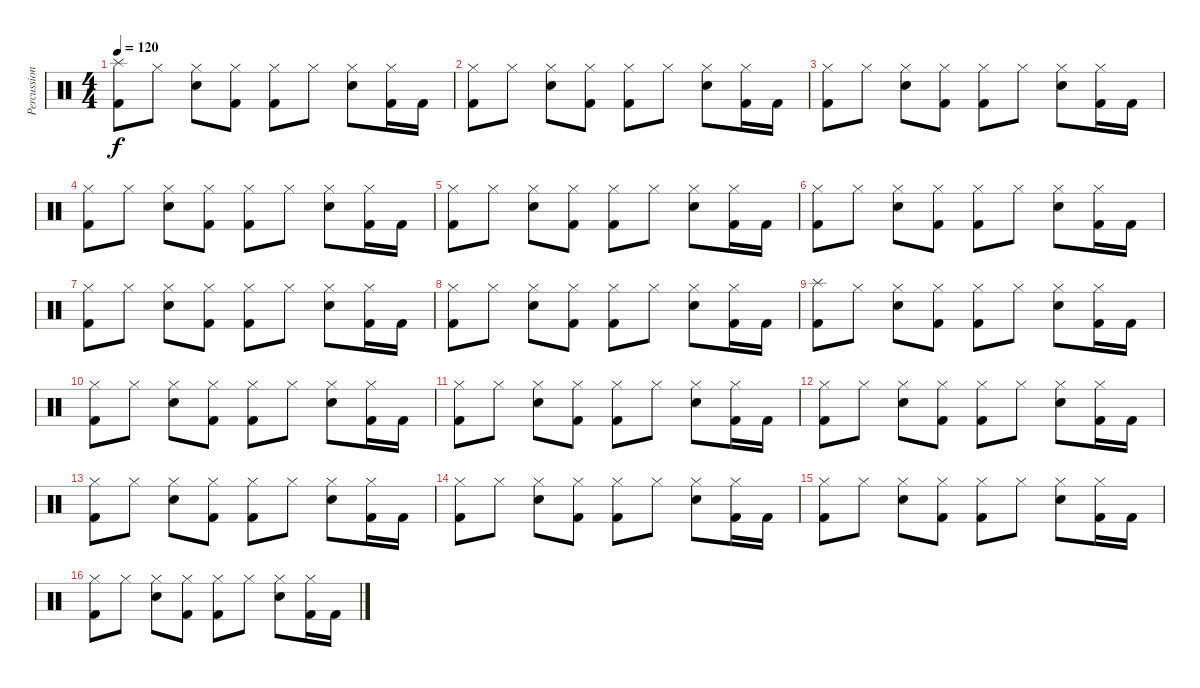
\track ("Percussion" "Percussion") {instrument percussion}
\staff {score}
\articulation defaults
\ts (4 4)
\tempo 120
\clef neutral
\ks c
("Splash (hit)" "Kick (hit) 2").8{dy f} "Hi-Hat (closed)".8 ("Hi-Hat (closed)" "Electric Snare (hit)").8 ("Hi-Hat (closed)" "Kick (hit) 2").8 ("Hi-Hat (closed)" "Kick (hit) 2").8 "Hi-Hat (closed)".8 ("Hi-Hat (closed)" "Electric Snare (hit)").8 ("Hi-Hat (closed)" "Kick (hit) 2").16 "Kick (hit) 2".16 |
("Hi-Hat (closed)" "Kick (hit) 2").8 "Hi-Hat (closed)".8 ("Hi-Hat (closed)" "Electric Snare (hit)").8 ("Hi-Hat (closed)" "Kick (hit) 2").8 ("Hi-Hat (closed)" "Kick (hit) 2").8 "Hi-Hat (closed)".8 ("Hi-Hat (closed)" "Electric Snare (hit)").8 ("Hi-Hat (closed)" "Kick (hit) 2").16 "Kick (hit) 2".16 |
("Hi-Hat (closed)" "Kick (hit) 2").8 "Hi-Hat (closed)".8 ("Hi-Hat (closed)" "Electric Snare (hit)").8 ("Hi-Hat (closed)" "Kick (hit) 2").8 ("Hi-Hat (closed)" "Kick (hit) 2").8 "Hi-Hat (closed)".8 ("Hi-Hat (closed)" "Electric Snare (hit)").8 ("Hi-Hat (closed)" "Kick (hit) 2").16 "Kick (hit) 2".16 |
("Hi-Hat (closed)" "Kick (hit) 2").8 "Hi-Hat (closed)".8 ("Hi-Hat (closed)" "Electric Snare (hit)").8 ("Hi-Hat (closed)" "Kick (hit) 2").8 ("Hi-Hat (closed)" "Kick (hit) 2").8 "Hi-Hat (closed)".8 ("Hi-Hat (closed)" "Electric Snare (hit)").8 ("Hi-Hat (closed)" "Kick (hit) 2").16 "Kick (hit) 2".16 |
("Hi-Hat (closed)" "Kick (hit) 2").8 "Hi-Hat (closed)".8 ("Hi-Hat (closed)" "Electric Snare (hit)").8 ("Hi-Hat (closed)" "Kick (hit) 2").8 ("Hi-Hat (closed)" "Kick (hit) 2").8 "Hi-Hat (closed)".8 ("Hi-Hat (closed)" "Electric Snare (hit)").8 ("Hi-Hat (closed)" "Kick (hit) 2").16 "Kick (hit) 2".16 |
("Hi-Hat (closed)" "Kick (hit) 2").8 "Hi-Hat (closed)".8 ("Hi-Hat (closed)" "Electric Snare (hit)").8 ("Hi-Hat (closed)" "Kick (hit) 2").8 ("Hi-Hat (closed)" "Kick (hit) 2").8 "Hi-Hat (closed)".8 ("Hi-Hat (closed)" "Electric Snare (hit)").8 ("Hi-Hat (closed)" "Kick (hit) 2").16 "Kick (hit) 2".16 |
("Hi-Hat (closed)" "Kick (hit) 2").8 "Hi-Hat (closed)".8 ("Hi-Hat (closed)" "Electric Snare (hit)").8 ("Hi-Hat (closed)" "Kick (hit) 2").8 ("Hi-Hat (closed)" "Kick (hit) 2").8 "Hi-Hat (closed)".8 ("Hi-Hat (closed)" "Electric Snare (hit)").8 ("Hi-Hat (closed)" "Kick (hit) 2").16 "Kick (hit) 2".16 |
("Hi-Hat (closed)" "Kick (hit) 2").8 "Hi-Hat (closed)".8 ("Hi-Hat (closed)" "Electric Snare (hit)").8 ("Hi-Hat (closed)" "Kick (hit) 2").8 ("Hi-Hat (closed)" "Kick (hit) 2").8 "Hi-Hat (closed)".8 ("Hi-Hat (closed)" "Electric Snare (hit)").8 ("Hi-Hat (closed)" "Kick (hit) 2").16 "Kick (hit) 2".16 |
("Splash (hit)" "Kick (hit) 2").8 "Hi-Hat (closed)".8 ("Hi-Hat (closed)" "Electric Snare (hit)").8 ("Hi-Hat (closed)" "Kick (hit) 2").8 ("Hi-Hat (closed)" "Kick (hit) 2").8 "Hi-Hat (closed)".8 ("Hi-Hat (closed)" "Electric Snare (hit)").8 ("Hi-Hat (closed)" "Kick (hit) 2").16 "Kick (hit) 2".16 |
("Hi-Hat (closed)" "Kick (hit) 2").8 "Hi-Hat (closed)".8 ("Hi-Hat (closed)" "Electric Snare (hit)").8 ("Hi-Hat (closed)" "Kick (hit) 2").8 ("Hi-Hat (closed)" "Kick (hit) 2").8 "Hi-Hat (closed)".8 ("Hi-Hat (closed)" "Electric Snare (hit)").8 ("Hi-Hat (closed)" "Kick (hit) 2").16 "Kick (hit) 2".16 |
("Hi-Hat (closed)" "Kick (hit) 2").8 "Hi-Hat (closed)".8 ("Hi-Hat (closed)" "Electric Snare (hit)").8 ("Hi-Hat (closed)" "Kick (hit) 2").8 ("Hi-Hat (closed)" "Kick (hit) 2").8 "Hi-Hat (closed)".8 ("Hi-Hat (closed)" "Electric Snare (hit)").8 ("Hi-Hat (closed)" "Kick (hit) 2").16 "Kick (hit) 2".16 |
("Hi-Hat (closed)" "Kick (hit) 2").8 "Hi-Hat (closed)".8 ("Hi-Hat (closed)" "Electric Snare (hit)").8 ("Hi-Hat (closed)" "Kick (hit) 2").8 ("Hi-Hat (closed)" "Kick (hit) 2").8 "Hi-Hat (closed)".8 ("Hi-Hat (closed)" "Electric Snare (hit)").8 ("Hi-Hat (closed)" "Kick (hit) 2").16 "Kick (hit) 2".16 |
("Hi-Hat (closed)" "Kick (hit) 2").8 "Hi-Hat (closed)".8 ("Hi-Hat (closed)" "Electric Snare (hit)").8 ("Hi-Hat (closed)" "Kick (hit) 2").8 ("Hi-Hat (closed)" "Kick (hit) 2").8 "Hi-Hat (closed)".8 ("Hi-Hat (closed)" "Electric Snare (hit)").8 ("Hi-Hat (closed)" "Kick (hit) 2").16 "Kick (hit) 2".16 |
("Hi-Hat (closed)" "Kick (hit) 2").8 "Hi-Hat (closed)".8 ("Hi-Hat (closed)" "Electric Snare (hit)").8 ("Hi-Hat (closed)" "Kick (hit) 2").8 ("Hi-Hat (closed)" "Kick (hit) 2").8 "Hi-Hat (closed)".8 ("Hi-Hat (closed)" "Electric Snare (hit)").8 ("Hi-Hat (closed)" "Kick (hit) 2").16 "Kick (hit) 2".16 |
("Hi-Hat (closed)" "Kick (hit) 2").8 "Hi-Hat (closed)".8 ("Hi-Hat (closed)" "Electric Snare (hit)").8 ("Hi-Hat (closed)" "Kick (hit) 2").8 ("Hi-Hat (closed)" "Kick (hit) 2").8 "Hi-Hat (closed)".8 ("Hi-Hat (closed)" "Electric Snare (hit)").8 ("Hi-Hat (closed)" "Kick (hit) 2").16 "Kick (hit) 2".16 |
("Hi-Hat (closed)" "Kick (hit) 2").8 "Hi-Hat (closed)".8 ("Hi-Hat (closed)" "Electric Snare (hit)").8 ("Hi-Hat (closed)" "Kick (hit) 2").8 ("Hi-Hat (closed)" "Kick (hit) 2").8 "Hi-Hat (closed)".8 ("Hi-Hat (closed)" "Electric Snare (hit)").8 ("Hi-Hat (closed)" "Kick (hit) 2").16 "Kick (hit) 2".16
